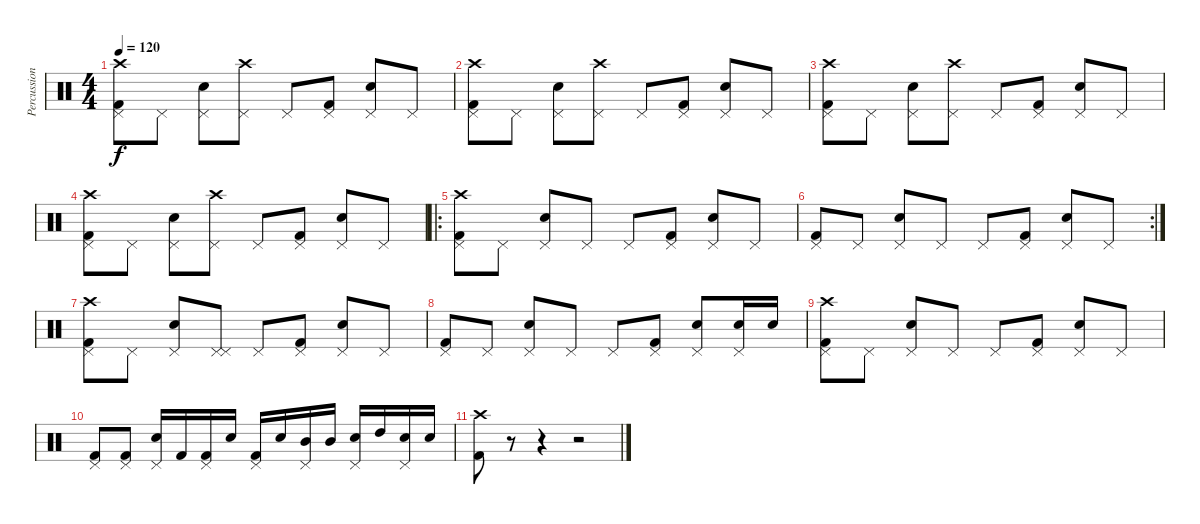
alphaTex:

\track ("Percussion" "Percussion") {instrument percussion}
\staff {score}
\articulation defaults
\ts (4 4)
\tempo 120
\clef neutral
\ks c
("Crash high (hit)" "Pedal Hi-Hat (hit)" "Kick (hit) 2").8{dy f} "Pedal Hi-Hat (hit)".8 ("Pedal Hi-Hat (hit)" "Electric Snare (hit)").8 ("Crash high (hit)" "Pedal Hi-Hat (hit)").8 "Pedal Hi-Hat (hit)".8 ("Pedal Hi-Hat (hit)" "Kick (hit) 2").8 ("Pedal Hi-Hat (hit)" "Electric Snare (hit)").8 "Pedal Hi-Hat (hit)".8 |
("Crash high (hit)" "Pedal Hi-Hat (hit)" "Kick (hit) 2").8 "Pedal Hi-Hat (hit)".8 ("Pedal Hi-Hat (hit)" "Electric Snare (hit)").8 ("Crash high (hit)" "Pedal Hi-Hat (hit)").8 "Pedal Hi-Hat (hit)".8 ("Pedal Hi-Hat (hit)" "Kick (hit) 2").8 ("Pedal Hi-Hat (hit)" "Electric Snare (hit)").8 "Pedal Hi-Hat (hit)".8 |
("Crash high (hit)" "Pedal Hi-Hat (hit)" "Kick (hit) 2").8 "Pedal Hi-Hat (hit)".8 ("Pedal Hi-Hat (hit)" "Electric Snare (hit)").8 ("Crash high (hit)" "Pedal Hi-Hat (hit)").8 "Pedal Hi-Hat (hit)".8 ("Pedal Hi-Hat (hit)" "Kick (hit) 2").8 ("Pedal Hi-Hat (hit)" "Electric Snare (hit)").8 "Pedal Hi-Hat (hit)".8 |
("Crash high (hit)" "Pedal Hi-Hat (hit)" "Kick (hit) 2").8 "Pedal Hi-Hat (hit)".8 ("Pedal Hi-Hat (hit)" "Electric Snare (hit)").8 ("Crash high (hit)" "Pedal Hi-Hat (hit)").8 "Pedal Hi-Hat (hit)".8 ("Pedal Hi-Hat (hit)" "Kick (hit) 2").8 ("Pedal Hi-Hat (hit)" "Electric Snare (hit)").8 "Pedal Hi-Hat (hit)".8 |
\ro
("Crash high (hit)" "Pedal Hi-Hat (hit)" "Kick (hit) 2").8 "Pedal Hi-Hat (hit)".8 ("Pedal Hi-Hat (hit)" "Electric Snare (hit)").8 "Pedal Hi-Hat (hit)".8 "Pedal Hi-Hat (hit)".8 ("Pedal Hi-Hat (hit)" "Kick (hit) 2").8 ("Pedal Hi-Hat (hit)" "Electric Snare (hit)").8 "Pedal Hi-Hat (hit)".8 |
\rc 2
("Pedal Hi-Hat (hit)" "Kick (hit) 2").8 "Pedal Hi-Hat (hit)".8 ("Pedal Hi-Hat (hit)" "Electric Snare (hit)").8 "Pedal Hi-Hat (hit)".8 "Pedal Hi-Hat (hit)".8 ("Pedal Hi-Hat (hit)" "Kick (hit) 2").8 ("Pedal Hi-Hat (hit)" "Electric Snare (hit)").8 "Pedal Hi-Hat (hit)".8 |
("Crash high (hit)" "Pedal Hi-Hat (hit)" "Kick (hit) 2").8 "Pedal Hi-Hat (hit)".8 ("Pedal Hi-Hat (hit)" "Electric Snare (hit)").8 ("Pedal Hi-Hat (hit)" "Pedal Hi-Hat (hit)").8 "Pedal Hi-Hat (hit)".8 ("Pedal Hi-Hat (hit)" "Kick (hit) 2").8 ("Pedal Hi-Hat (hit)" "Electric Snare (hit)").8 "Pedal Hi-Hat (hit)".8 |
("Pedal Hi-Hat (hit)" "Kick (hit) 2").8 "Pedal Hi-Hat (hit)".8 ("Pedal Hi-Hat (hit)" "Electric Snare (hit)").8 "Pedal Hi-Hat (hit)".8 "Pedal Hi-Hat (hit)".8 ("Pedal Hi-Hat (hit)" "Kick (hit) 2").8 ("Pedal Hi-Hat (hit)" "Electric Snare (hit)").8 ("Electric Snare (hit)" "Pedal Hi-Hat (hit)").16 "Electric Snare (hit)".16 |
("Crash high (hit)" "Pedal Hi-Hat (hit)" "Kick (hit) 2").8 "Pedal Hi-Hat (hit)".8 ("Pedal Hi-Hat (hit)" "Electric Snare (hit)").8 "Pedal Hi-Hat (hit)".8 "Pedal Hi-Hat (hit)".8 ("Pedal Hi-Hat (hit)" "Kick (hit) 2").8 ("Pedal Hi-Hat (hit)" "Electric Snare (hit)").8 "Pedal Hi-Hat (hit)".8 |
("Pedal Hi-Hat (hit)" "Kick (hit) 2").8 ("Pedal Hi-Hat (hit)" "Kick (hit) 2").8 ("Pedal Hi-Hat (hit)" "Electric Snare (hit)").16 "Kick (hit) 2".16 ("Pedal Hi-Hat (hit)" "Kick (hit) 2").16 "Electric Snare (hit)".16 ("Pedal Hi-Hat (hit)" "Kick (hit) 2").16 "Electric Snare (hit)".16 ("Pedal Hi-Hat (hit)" "Mid Tom (hit)").16 "Mid Tom (hit)".16 ("Pedal Hi-Hat (hit)" "Electric Snare (hit)").16 "High Tom (hit)".16 ("Pedal Hi-Hat (hit)" "Electric Snare (hit)").16 "Electric Snare (hit)".16 |
("Crash high (hit)" "Kick (hit) 2").8 r.8 r.4 r.2
